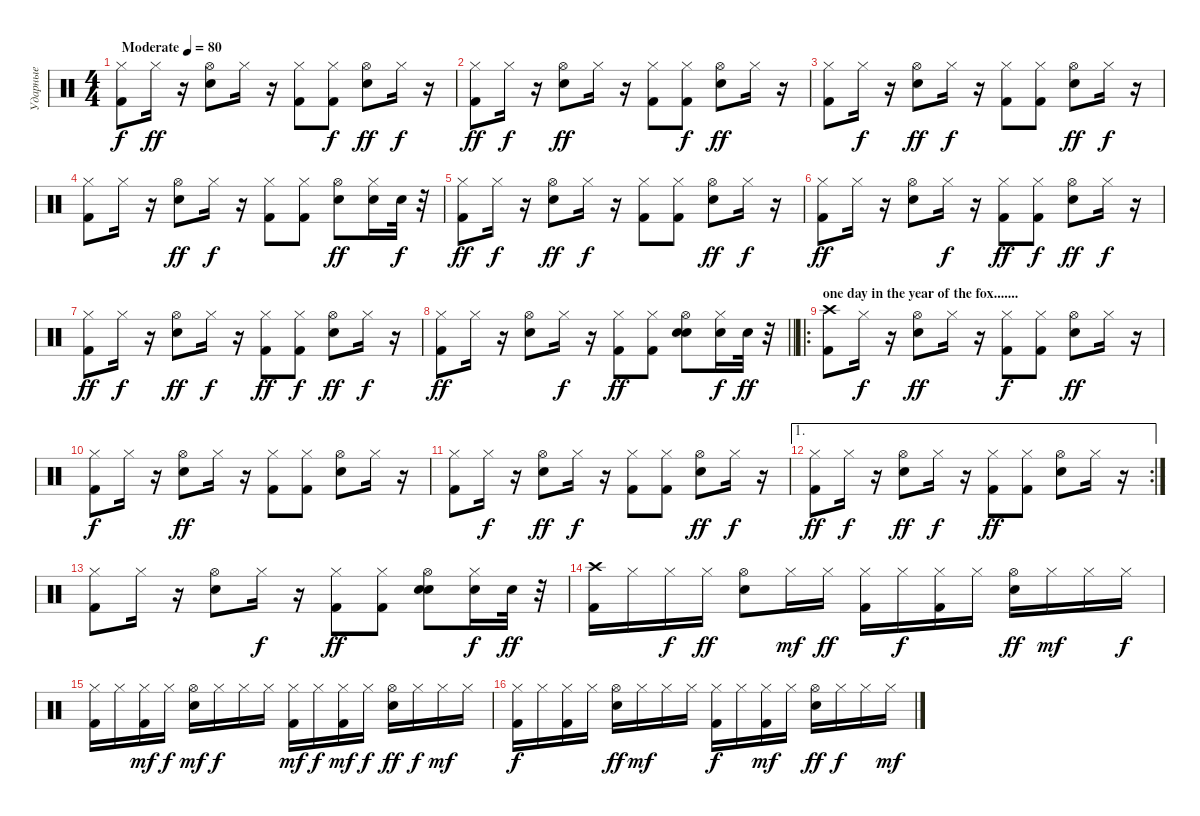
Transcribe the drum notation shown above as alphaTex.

\track ("Ударные" "Ударные") {instrument percussion}
\staff {score}
\articulation defaults
\ts (4 4)
\tempo (80 "Moderate")
\clef neutral
\ks c
("Kick (hit) 2" "Hi-Hat (closed)").8{dy f} "Hi-Hat (closed)".16{dy ff} r.16 ("Electric Snare (hit)" "Hi-Hat (open)").8 "Hi-Hat (closed)".16 r.16 ("Kick (hit) 2" "Hi-Hat (closed)").8 ("Kick (hit) 2" "Hi-Hat (closed)").8{dy f} ("Electric Snare (hit)" "Hi-Hat (open)").8{dy ff} "Hi-Hat (closed)".16{dy f} r.16 |
("Kick (hit) 2" "Hi-Hat (closed)").8{dy ff} "Hi-Hat (closed)".16{dy f} r.16 ("Electric Snare (hit)" "Hi-Hat (open)").8{dy ff} "Hi-Hat (closed)".16 r.16 ("Kick (hit) 2" "Hi-Hat (closed)").8 ("Kick (hit) 2" "Hi-Hat (closed)").8{dy f} ("Electric Snare (hit)" "Hi-Hat (open)").8{dy ff} "Hi-Hat (closed)".16 r.16 |
("Kick (hit) 2" "Hi-Hat (closed)").8 "Hi-Hat (closed)".16{dy f} r.16 ("Electric Snare (hit)" "Hi-Hat (open)").8{dy ff} "Hi-Hat (closed)".16{dy f} r.16 ("Kick (hit) 2" "Hi-Hat (closed)").8 ("Kick (hit) 2" "Hi-Hat (closed)").8 ("Electric Snare (hit)" "Hi-Hat (open)").8{dy ff} "Hi-Hat (closed)".16{dy f} r.16 |
("Kick (hit) 2" "Hi-Hat (closed)").8 "Hi-Hat (closed)".16 r.16 ("Electric Snare (hit)" "Hi-Hat (open)").8{dy ff} "Hi-Hat (closed)".16{dy f} r.16 ("Kick (hit) 2" "Hi-Hat (closed)").8 ("Kick (hit) 2" "Hi-Hat (closed)").8 ("Electric Snare (hit)" "Hi-Hat (open)").8{dy ff} ("Hi-Hat (closed)" "Electric Snare (hit)").16 "Electric Snare (hit)".32{dy f} r.32 |
("Kick (hit) 2" "Hi-Hat (closed)").8{dy ff} "Hi-Hat (closed)".16{dy f} r.16 ("Electric Snare (hit)" "Hi-Hat (open)").8{dy ff} "Hi-Hat (closed)".16{dy f} r.16 ("Kick (hit) 2" "Hi-Hat (closed)").8 ("Kick (hit) 2" "Hi-Hat (closed)").8 ("Electric Snare (hit)" "Hi-Hat (open)").8{dy ff} "Hi-Hat (closed)".16{dy f} r.16 |
("Kick (hit) 2" "Hi-Hat (closed)").8{dy ff} "Hi-Hat (closed)".16 r.16 ("Electric Snare (hit)" "Hi-Hat (open)").8 "Hi-Hat (closed)".16{dy f} r.16 ("Kick (hit) 2" "Hi-Hat (closed)").8{dy ff} ("Kick (hit) 2" "Hi-Hat (closed)").8{dy f} ("Electric Snare (hit)" "Hi-Hat (open)").8{dy ff} "Hi-Hat (closed)".16{dy f} r.16 |
("Kick (hit) 2" "Hi-Hat (closed)").8{dy ff} "Hi-Hat (closed)".16{dy f} r.16 ("Electric Snare (hit)" "Hi-Hat (open)").8{dy ff} "Hi-Hat (closed)".16{dy f} r.16 ("Kick (hit) 2" "Hi-Hat (closed)").8{dy ff} ("Kick (hit) 2" "Hi-Hat (closed)").8{dy f} ("Electric Snare (hit)" "Hi-Hat (open)").8{dy ff} "Hi-Hat (closed)".16{dy f} r.16 |
\barLineRight lightlight
("Kick (hit) 2" "Hi-Hat (closed)").8{dy ff} "Hi-Hat (closed)".16 r.16 ("Electric Snare (hit)" "Hi-Hat (open)").8 "Hi-Hat (closed)".16{dy f} r.16 ("Kick (hit) 2" "Hi-Hat (closed)").8{dy ff} ("Kick (hit) 2" "Hi-Hat (closed)").8 ("Electric Snare (hit)" "Hi-Hat (open)" "Electric Snare (hit)").8 ("Hi-Hat (closed)" "Electric Snare (hit)").16{dy f} "Electric Snare (hit)".32{dy ff} r.32 |
\ro
\section ("" "one day in the year of the fox.......")
("Kick (hit) 2" "Crash high (hit)").8 "Hi-Hat (closed)".16{dy f} r.16 ("Electric Snare (hit)" "Hi-Hat (open)").8{dy ff} "Hi-Hat (closed)".16 r.16 ("Kick (hit) 2" "Hi-Hat (closed)").8{dy f} ("Kick (hit) 2" "Hi-Hat (closed)").8 ("Electric Snare (hit)" "Hi-Hat (open)").8{dy ff} "Hi-Hat (closed)".16 r.16 |
("Kick (hit) 2" "Hi-Hat (closed)").8{dy f} "Hi-Hat (closed)".16 r.16 ("Electric Snare (hit)" "Hi-Hat (open)").8{dy ff} "Hi-Hat (closed)".16 r.16 ("Kick (hit) 2" "Hi-Hat (closed)").8 ("Kick (hit) 2" "Hi-Hat (closed)").8 ("Electric Snare (hit)" "Hi-Hat (open)").8 "Hi-Hat (closed)".16 r.16 |
("Kick (hit) 2" "Hi-Hat (closed)").8 "Hi-Hat (closed)".16{dy f} r.16 ("Electric Snare (hit)" "Hi-Hat (open)").8{dy ff} "Hi-Hat (closed)".16{dy f} r.16 ("Kick (hit) 2" "Hi-Hat (closed)").8 ("Kick (hit) 2" "Hi-Hat (closed)").8 ("Electric Snare (hit)" "Hi-Hat (open)").8{dy ff} "Hi-Hat (closed)".16{dy f} r.16 |
\ae 1
\rc 2
("Kick (hit) 2" "Hi-Hat (closed)").8{dy ff} "Hi-Hat (closed)".16{dy f} r.16 ("Electric Snare (hit)" "Hi-Hat (open)").8{dy ff} "Hi-Hat (closed)".16{dy f} r.16 ("Kick (hit) 2" "Hi-Hat (closed)").8{dy ff} ("Kick (hit) 2" "Hi-Hat (closed)").8 ("Electric Snare (hit)" "Hi-Hat (open)").8 "Hi-Hat (closed)".16 r.16 |
("Kick (hit) 2" "Hi-Hat (closed)").8 "Hi-Hat (closed)".16 r.16 ("Electric Snare (hit)" "Hi-Hat (open)").8 "Hi-Hat (closed)".16{dy f} r.16 ("Kick (hit) 2" "Hi-Hat (closed)").8{dy ff} ("Kick (hit) 2" "Hi-Hat (closed)").8 ("Electric Snare (hit)" "Hi-Hat (open)" "Electric Snare (hit)").8 ("Hi-Hat (closed)" "Electric Snare (hit)").16{dy f} "Electric Snare (hit)".32{dy ff} r.32 |
("Kick (hit) 2" "Crash high (hit)").16 "Hi-Hat (closed)".16 "Hi-Hat (closed)".16{dy f} "Hi-Hat (closed)".16{dy ff} ("Electric Snare (hit)" "Hi-Hat (open)").8 "Hi-Hat (closed)".16{dy mf} "Hi-Hat (closed)".16{dy ff} ("Kick (hit) 2" "Hi-Hat (closed)").16 "Hi-Hat (closed)".16{dy f} ("Kick (hit) 2" "Hi-Hat (closed)").16 "Hi-Hat (closed)".16 ("Electric Snare (hit)" "Hi-Hat (open)").16{dy ff} "Hi-Hat (closed)".16{dy mf} "Hi-Hat (closed)".16 "Hi-Hat (closed)".16{dy f} |
("Kick (hit) 2" "Hi-Hat (closed)").16 "Hi-Hat (closed)".16 ("Kick (hit) 2" "Hi-Hat (closed)").16{dy mf} "Hi-Hat (closed)".16{dy f} ("Electric Snare (hit)" "Hi-Hat (open)").16{dy mf} "Hi-Hat (closed)".16{dy f} "Hi-Hat (closed)".16 "Hi-Hat (closed)".16 ("Kick (hit) 2" "Hi-Hat (closed)").16{dy mf} "Hi-Hat (closed)".16{dy f} ("Kick (hit) 2" "Hi-Hat (closed)").16{dy mf} "Hi-Hat (closed)".16{dy f} ("Electric Snare (hit)" "Hi-Hat (open)").16{dy ff} "Hi-Hat (closed)".16{dy f} "Hi-Hat (closed)".16{dy mf} "Hi-Hat (closed)".16 |
("Kick (hit) 2" "Hi-Hat (closed)").16{dy f} "Hi-Hat (closed)".16 ("Kick (hit) 2" "Hi-Hat (closed)").16 "Hi-Hat (closed)".16 ("Electric Snare (hit)" "Hi-Hat (open)").16{dy ff} "Hi-Hat (closed)".16{dy mf} "Hi-Hat (closed)".16 "Hi-Hat (closed)".16 ("Kick (hit) 2" "Hi-Hat (closed)").16{dy f} "Hi-Hat (closed)".16 ("Kick (hit) 2" "Hi-Hat (closed)").16{dy mf} "Hi-Hat (closed)".16 ("Electric Snare (hit)" "Hi-Hat (open)").16{dy ff} "Hi-Hat (closed)".16{dy f} "Hi-Hat (closed)".16 "Hi-Hat (closed)".16{dy mf}
